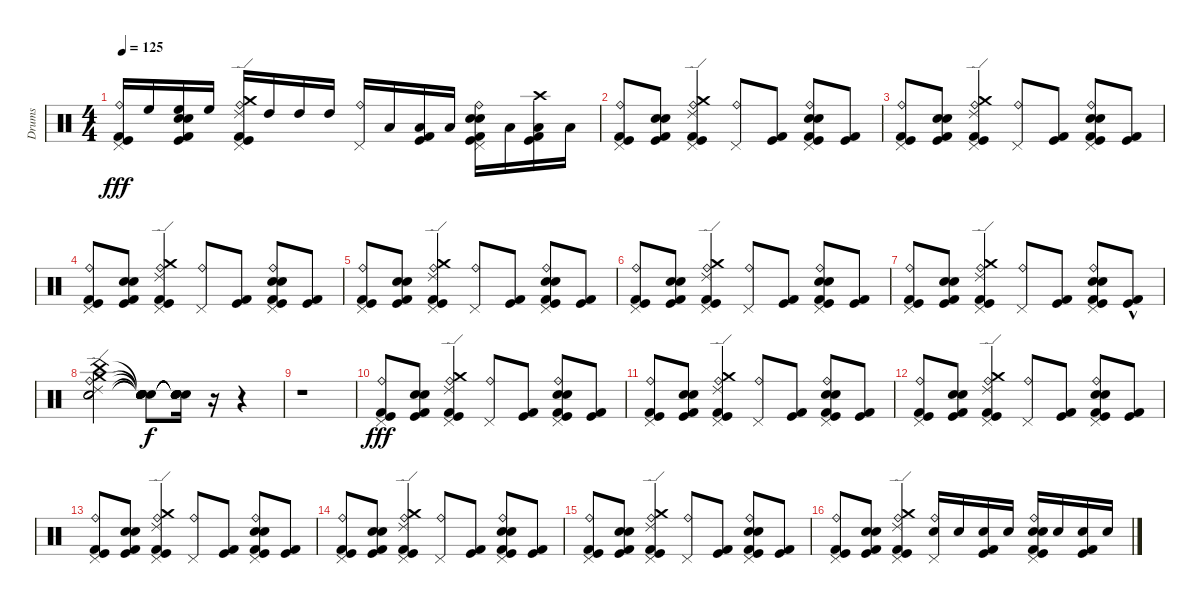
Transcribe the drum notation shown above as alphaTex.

\track ("Drums" "Drums") {instrument percussion}
\staff {score}
\articulation defaults
\ts (4 4)
\tempo 125
\clef neutral
\ks c
("Pedal Hi-Hat (hit)" "Kick (hit) 2" "Kick (hit)" "Ride (bell)").16{dy fff} "High Floor Tom (hit)".16 ("Electric Snare (hit)" "Snare (hit) 2" "Kick (hit)" "Kick (hit) 2" "High Floor Tom (hit)").16 "High Floor Tom (hit)".16 ("Pedal Hi-Hat (hit)" "Kick (hit) 2" "Kick (hit)" "Ride (bell)" "Crash medium (hit)" "Ride (edge) 2").16 "High Tom (hit)".16 "High Tom (hit)".16 "High Tom (hit)".16 ("Pedal Hi-Hat (hit)" "Ride (bell)").16 "Low Tom (hit)".16 ("Kick (hit) 2" "Kick (hit)" "Low Tom (hit)").16 "Low Tom (hit)".16 ("Pedal Hi-Hat (hit)" "Electric Snare (hit)" "Snare (hit) 2" "Kick (hit) 2" "Kick (hit)" "Ride (bell)").16 "Low Floor Tom (hit)".16 ("Kick (hit) 2" "Kick (hit)" "Low Floor Tom (hit)" "Crash high (hit)").16 "Low Floor Tom (hit)".16 |
("Pedal Hi-Hat (hit)" "Kick (hit) 2" "Kick (hit)" "Ride (bell)").8 ("Electric Snare (hit)" "Snare (hit) 2" "Kick (hit)" "Kick (hit) 2").8 ("Pedal Hi-Hat (hit)" "Kick (hit) 2" "Kick (hit)" "Ride (bell)" "Crash medium (hit)" "Ride (edge) 2").4 ("Pedal Hi-Hat (hit)" "Ride (bell)").8 ("Kick (hit) 2" "Kick (hit)").8 ("Electric Snare (hit)" "Snare (hit) 2" "Kick (hit) 2" "Kick (hit)" "Ride (bell)" "Pedal Hi-Hat (hit)").8 ("Kick (hit) 2" "Kick (hit)").8 |
("Pedal Hi-Hat (hit)" "Kick (hit) 2" "Kick (hit)" "Ride (bell)").8 ("Electric Snare (hit)" "Snare (hit) 2" "Kick (hit)" "Kick (hit) 2").8 ("Pedal Hi-Hat (hit)" "Kick (hit) 2" "Kick (hit)" "Ride (bell)" "Crash medium (hit)" "Ride (edge) 2").4 ("Pedal Hi-Hat (hit)" "Ride (bell)").8 ("Kick (hit) 2" "Kick (hit)").8 ("Pedal Hi-Hat (hit)" "Electric Snare (hit)" "Snare (hit) 2" "Kick (hit) 2" "Kick (hit)" "Ride (bell)").8 ("Kick (hit) 2" "Kick (hit)").8 |
("Pedal Hi-Hat (hit)" "Kick (hit) 2" "Kick (hit)" "Ride (bell)").8 ("Electric Snare (hit)" "Snare (hit) 2" "Kick (hit)" "Kick (hit) 2").8 ("Pedal Hi-Hat (hit)" "Kick (hit) 2" "Kick (hit)" "Ride (bell)" "Crash medium (hit)" "Ride (edge) 2").4 ("Pedal Hi-Hat (hit)" "Ride (bell)").8 ("Kick (hit) 2" "Kick (hit)").8 ("Pedal Hi-Hat (hit)" "Electric Snare (hit)" "Snare (hit) 2" "Kick (hit) 2" "Kick (hit)" "Ride (bell)").8 ("Kick (hit) 2" "Kick (hit)").8 |
("Pedal Hi-Hat (hit)" "Kick (hit) 2" "Kick (hit)" "Ride (bell)").8 ("Electric Snare (hit)" "Snare (hit) 2" "Kick (hit)" "Kick (hit) 2").8 ("Pedal Hi-Hat (hit)" "Kick (hit) 2" "Kick (hit)" "Ride (bell)" "Crash medium (hit)" "Ride (edge) 2").4 ("Pedal Hi-Hat (hit)" "Ride (bell)").8 ("Kick (hit) 2" "Kick (hit)").8 ("Pedal Hi-Hat (hit)" "Electric Snare (hit)" "Snare (hit) 2" "Kick (hit) 2" "Kick (hit)" "Ride (bell)").8 ("Kick (hit) 2" "Kick (hit)").8 |
("Pedal Hi-Hat (hit)" "Kick (hit) 2" "Kick (hit)" "Ride (bell)").8 ("Electric Snare (hit)" "Snare (hit) 2" "Kick (hit)" "Kick (hit) 2").8 ("Pedal Hi-Hat (hit)" "Kick (hit) 2" "Kick (hit)" "Ride (bell)" "Crash medium (hit)" "Ride (edge) 2").4 ("Pedal Hi-Hat (hit)" "Ride (bell)").8 ("Kick (hit) 2" "Kick (hit)").8 ("Pedal Hi-Hat (hit)" "Electric Snare (hit)" "Snare (hit) 2" "Kick (hit) 2" "Kick (hit)" "Ride (bell)").8 ("Kick (hit) 2" "Kick (hit)").8 |
("Pedal Hi-Hat (hit)" "Kick (hit) 2" "Kick (hit)" "Ride (bell)").8 ("Electric Snare (hit)" "Snare (hit) 2" "Kick (hit)" "Kick (hit) 2").8 ("Pedal Hi-Hat (hit)" "Kick (hit) 2" "Kick (hit)" "Ride (bell)" "Crash medium (hit)" "Ride (edge) 2").4 ("Pedal Hi-Hat (hit)" "Ride (bell)").8 ("Kick (hit) 2" "Kick (hit)").8 ("Pedal Hi-Hat (hit)" "Electric Snare (hit)" "Snare (hit) 2" "Kick (hit) 2" "Kick (hit)" "Ride (bell)").8 ("Kick (hit) 2"{hac} "Kick (hit)"{hac}).8 |
("Ride (edge) 2" "Crash medium (hit)" "Ride (bell)" "China (hit)" "Electric Snare (hit)" "Snare (hit) 2").2 ("Snare (hit)"{t} "Snare (hit)"{t} "Snare (hit)"{t} "Snare (hit)"{t} "Snare (hit)"{t} "Snare (hit)"{t}).8{dy f} ("Snare (hit)"{t} "Snare (hit)"{t} "Snare (hit)"{t} "Snare (hit)"{t} "Snare (hit)"{t} "Snare (hit)"{t}).16 r.16 r.4 |
r.1 |
("Pedal Hi-Hat (hit)" "Kick (hit) 2" "Kick (hit)" "Ride (bell)").8{dy fff} ("Electric Snare (hit)" "Snare (hit) 2" "Kick (hit)" "Kick (hit) 2").8 ("Pedal Hi-Hat (hit)" "Kick (hit) 2" "Kick (hit)" "Ride (bell)" "Crash medium (hit)" "Ride (edge) 2").4 ("Pedal Hi-Hat (hit)" "Ride (bell)").8 ("Kick (hit) 2" "Kick (hit)").8 ("Pedal Hi-Hat (hit)" "Electric Snare (hit)" "Snare (hit) 2" "Kick (hit) 2" "Kick (hit)" "Ride (bell)").8 ("Kick (hit) 2" "Kick (hit)").8 |
("Pedal Hi-Hat (hit)" "Kick (hit) 2" "Kick (hit)" "Ride (bell)").8 ("Electric Snare (hit)" "Snare (hit) 2" "Kick (hit)" "Kick (hit) 2").8 ("Pedal Hi-Hat (hit)" "Kick (hit) 2" "Kick (hit)" "Ride (bell)" "Crash medium (hit)" "Ride (edge) 2").4 ("Pedal Hi-Hat (hit)" "Ride (bell)").8 ("Kick (hit) 2" "Kick (hit)").8 ("Pedal Hi-Hat (hit)" "Electric Snare (hit)" "Snare (hit) 2" "Kick (hit) 2" "Kick (hit)" "Ride (bell)").8 ("Kick (hit) 2" "Kick (hit)").8 |
("Pedal Hi-Hat (hit)" "Kick (hit) 2" "Kick (hit)" "Ride (bell)").8 ("Electric Snare (hit)" "Snare (hit) 2" "Kick (hit)" "Kick (hit) 2").8 ("Pedal Hi-Hat (hit)" "Kick (hit) 2" "Kick (hit)" "Ride (bell)" "Crash medium (hit)" "Ride (edge) 2").4 ("Pedal Hi-Hat (hit)" "Ride (bell)").8 ("Kick (hit) 2" "Kick (hit)").8 ("Pedal Hi-Hat (hit)" "Electric Snare (hit)" "Snare (hit) 2" "Kick (hit) 2" "Kick (hit)" "Ride (bell)").8 ("Kick (hit) 2" "Kick (hit)").8 |
("Pedal Hi-Hat (hit)" "Kick (hit) 2" "Kick (hit)" "Ride (bell)").8 ("Electric Snare (hit)" "Snare (hit) 2" "Kick (hit)" "Kick (hit) 2").8 ("Pedal Hi-Hat (hit)" "Kick (hit) 2" "Kick (hit)" "Ride (bell)" "Crash medium (hit)" "Ride (edge) 2").4 ("Pedal Hi-Hat (hit)" "Ride (bell)").8 ("Kick (hit) 2" "Kick (hit)").8 ("Pedal Hi-Hat (hit)" "Electric Snare (hit)" "Snare (hit) 2" "Kick (hit) 2" "Kick (hit)" "Ride (bell)").8 ("Kick (hit) 2" "Kick (hit)").8 |
("Pedal Hi-Hat (hit)" "Kick (hit) 2" "Kick (hit)" "Ride (bell)").8 ("Electric Snare (hit)" "Snare (hit) 2" "Kick (hit)" "Kick (hit) 2").8 ("Pedal Hi-Hat (hit)" "Kick (hit) 2" "Kick (hit)" "Ride (bell)" "Crash medium (hit)" "Ride (edge) 2").4 ("Pedal Hi-Hat (hit)" "Ride (bell)").8 ("Kick (hit) 2" "Kick (hit)").8 ("Pedal Hi-Hat (hit)" "Electric Snare (hit)" "Snare (hit) 2" "Kick (hit) 2" "Kick (hit)" "Ride (bell)").8 ("Kick (hit) 2" "Kick (hit)").8 |
("Pedal Hi-Hat (hit)" "Kick (hit) 2" "Kick (hit)" "Ride (bell)").8 ("Electric Snare (hit)" "Snare (hit) 2" "Kick (hit)" "Kick (hit) 2").8 ("Pedal Hi-Hat (hit)" "Kick (hit) 2" "Kick (hit)" "Ride (bell)" "Crash medium (hit)" "Ride (edge) 2").4 ("Pedal Hi-Hat (hit)" "Ride (bell)").8 ("Kick (hit) 2" "Kick (hit)").8 ("Pedal Hi-Hat (hit)" "Electric Snare (hit)" "Snare (hit) 2" "Kick (hit) 2" "Kick (hit)" "Ride (bell)").8 ("Kick (hit) 2" "Kick (hit)").8 |
("Pedal Hi-Hat (hit)" "Kick (hit) 2" "Kick (hit)" "Ride (bell)").8 ("Electric Snare (hit)" "Snare (hit) 2" "Kick (hit)" "Kick (hit) 2").8 ("Pedal Hi-Hat (hit)" "Kick (hit) 2" "Kick (hit)" "Ride (bell)" "Crash medium (hit)" "Ride (edge) 2").4 ("Pedal Hi-Hat (hit)" "Ride (bell)" "Electric Snare (hit)").16 "Electric Snare (hit)".16 ("Kick (hit) 2" "Kick (hit)" "Electric Snare (hit)").16 "Electric Snare (hit)".16 ("Pedal Hi-Hat (hit)" "Electric Snare (hit)" "Snare (hit) 2" "Kick (hit) 2" "Kick (hit)" "Ride (bell)").16 "Electric Snare (hit)".16 ("Kick (hit) 2" "Kick (hit)" "Electric Snare (hit)").16 "Electric Snare (hit)".16
